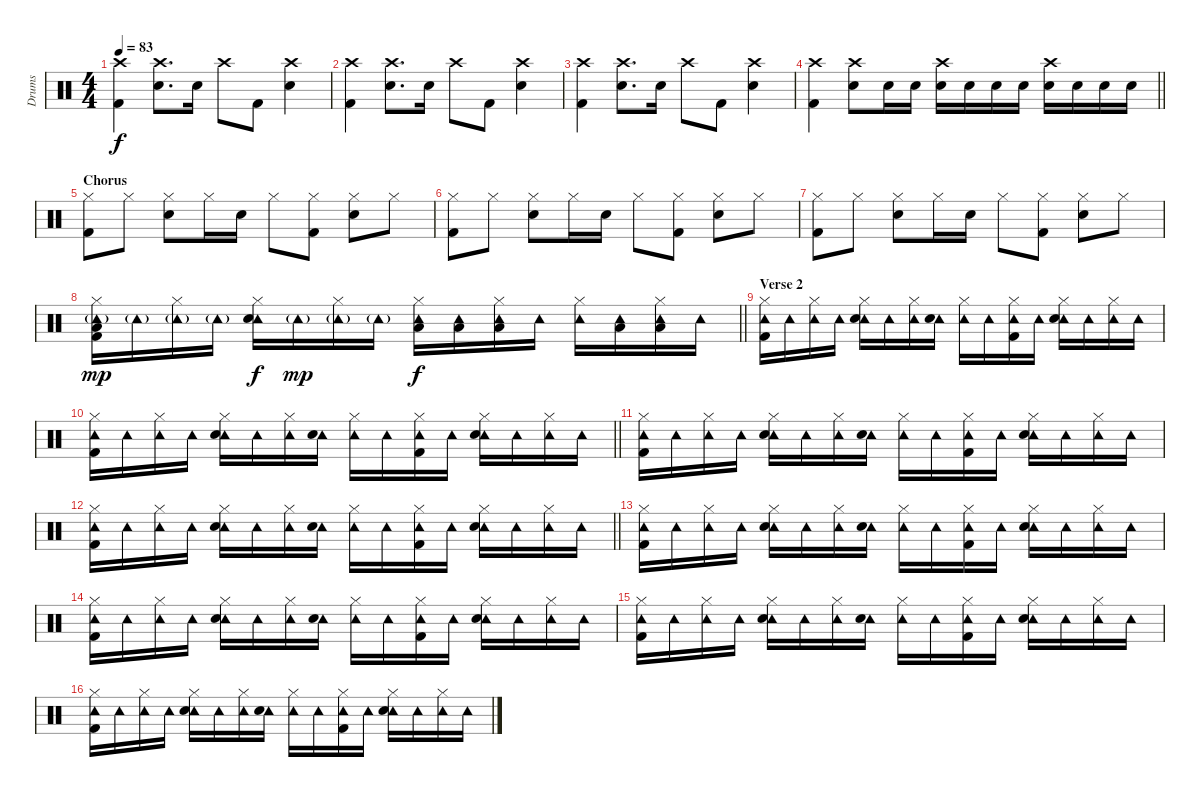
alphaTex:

\track ("Drums" "Drums") {instrument percussion}
\staff {score}
\articulation defaults
\ts (4 4)
\tempo 83
\clef neutral
\ks c
("Crash high (hit)" "Kick (hit) 2").4{dy f} ("Crash high (hit)" "Snare (hit) 2").8{d} "Snare (hit) 2".16 "Crash high (hit)".8 "Kick (hit) 2".8 ("Crash high (hit)" "Snare (hit) 2").4 |
("Crash high (hit)" "Kick (hit) 2").4 ("Crash high (hit)" "Snare (hit) 2").8{d} "Snare (hit) 2".16 "Crash high (hit)".8 "Kick (hit) 2".8 ("Crash high (hit)" "Snare (hit) 2").4 |
("Crash high (hit)" "Kick (hit) 2").4 ("Crash high (hit)" "Snare (hit) 2").8{d} "Snare (hit) 2".16 "Crash high (hit)".8 "Kick (hit) 2".8 ("Crash high (hit)" "Snare (hit) 2").4 |
\barLineRight lightlight
("Crash high (hit)" "Kick (hit) 2").4 ("Crash high (hit)" "Snare (hit) 2").8 "Snare (hit) 2".16 "Snare (hit) 2".16 ("Crash high (hit)" "Snare (hit) 2").16 "Snare (hit) 2".16 "Snare (hit) 2".16 "Snare (hit) 2".16 ("Crash high (hit)" "Snare (hit) 2").16 "Snare (hit) 2".16 "Snare (hit) 2".16 "Snare (hit) 2".16 |
\section ("" "Chorus")
("Hi-Hat (closed)" "Kick (hit) 2").8 "Hi-Hat (closed)".8 ("Hi-Hat (closed)" "Snare (hit) 2").8 "Hi-Hat (closed)".16 "Snare (hit) 2".16 "Hi-Hat (closed)".8 ("Hi-Hat (closed)" "Kick (hit) 2").8 ("Hi-Hat (closed)" "Snare (hit) 2").8 "Hi-Hat (closed)".8 |
("Hi-Hat (closed)" "Kick (hit) 2").8 "Hi-Hat (closed)".8 ("Hi-Hat (closed)" "Snare (hit) 2").8 "Hi-Hat (closed)".16 "Snare (hit) 2".16 "Hi-Hat (closed)".8 ("Hi-Hat (closed)" "Kick (hit) 2").8 ("Hi-Hat (closed)" "Snare (hit) 2").8 "Hi-Hat (closed)".8 |
("Hi-Hat (closed)" "Kick (hit) 2").8 "Hi-Hat (closed)".8 ("Hi-Hat (closed)" "Snare (hit) 2").8 "Hi-Hat (closed)".16 "Snare (hit) 2".16 "Hi-Hat (closed)".8 ("Hi-Hat (closed)" "Kick (hit) 2").8 ("Hi-Hat (closed)" "Snare (hit) 2").8 "Hi-Hat (closed)".8 |
\barLineRight lightlight
("Tambourine (hit)"{g} "Hi-Hat (closed)" "Low Tom (hit)" "Kick (hit) 2").16{dy mp} "Tambourine (hit)"{g}.16 ("Tambourine (hit)"{g} "Hi-Hat (closed)").16 "Tambourine (hit)"{g}.16 ("Tambourine (hit)" "Hi-Hat (closed)" "Snare (hit) 2").16{dy f} "Tambourine (hit)"{g}.16{dy mp} ("Tambourine (hit)"{g} "Hi-Hat (closed)").16 "Tambourine (hit)"{g}.16 ("Tambourine (hit)" "Hi-Hat (closed)" "Low Tom (hit)").16{dy f} ("Tambourine (hit)" "Low Tom (hit)").16 ("Tambourine (hit)" "Hi-Hat (closed)" "Low Tom (hit)").16 "Tambourine (hit)".16 ("Tambourine (hit)" "Hi-Hat (closed)").16 ("Tambourine (hit)" "Low Tom (hit)").16 ("Tambourine (hit)" "Hi-Hat (closed)" "Low Tom (hit)").16 "Tambourine (hit)".16 |
\section ("" "Verse 2")
("Tambourine (hit)" "Hi-Hat (closed)" "Kick (hit) 2").16 "Tambourine (hit)".16 ("Tambourine (hit)" "Hi-Hat (closed)").16 "Tambourine (hit)".16 ("Tambourine (hit)" "Hi-Hat (closed)" "Snare (hit) 2").16 "Tambourine (hit)".16 ("Tambourine (hit)" "Hi-Hat (closed)").16 ("Tambourine (hit)" "Snare (hit) 2").16 ("Tambourine (hit)" "Hi-Hat (closed)").16 "Tambourine (hit)".16 ("Tambourine (hit)" "Hi-Hat (closed)" "Kick (hit) 2").16 "Tambourine (hit)".16 ("Tambourine (hit)" "Hi-Hat (closed)" "Snare (hit) 2").16 "Tambourine (hit)".16 ("Tambourine (hit)" "Hi-Hat (closed)").16 "Tambourine (hit)".16 |
\barLineRight lightlight
("Tambourine (hit)" "Hi-Hat (closed)" "Kick (hit) 2").16 "Tambourine (hit)".16 ("Tambourine (hit)" "Hi-Hat (closed)").16 "Tambourine (hit)".16 ("Tambourine (hit)" "Hi-Hat (closed)" "Snare (hit) 2").16 "Tambourine (hit)".16 ("Tambourine (hit)" "Hi-Hat (closed)").16 ("Tambourine (hit)" "Snare (hit) 2").16 ("Tambourine (hit)" "Hi-Hat (closed)").16 "Tambourine (hit)".16 ("Tambourine (hit)" "Hi-Hat (closed)" "Kick (hit) 2").16 "Tambourine (hit)".16 ("Tambourine (hit)" "Hi-Hat (closed)" "Snare (hit) 2").16 "Tambourine (hit)".16 ("Tambourine (hit)" "Hi-Hat (closed)").16 "Tambourine (hit)".16 |
("Tambourine (hit)" "Hi-Hat (closed)" "Kick (hit) 2").16 "Tambourine (hit)".16 ("Tambourine (hit)" "Hi-Hat (closed)").16 "Tambourine (hit)".16 ("Tambourine (hit)" "Hi-Hat (closed)" "Snare (hit) 2").16 "Tambourine (hit)".16 ("Tambourine (hit)" "Hi-Hat (closed)").16 ("Tambourine (hit)" "Snare (hit) 2").16 ("Tambourine (hit)" "Hi-Hat (closed)").16 "Tambourine (hit)".16 ("Tambourine (hit)" "Hi-Hat (closed)" "Kick (hit) 2").16 "Tambourine (hit)".16 ("Tambourine (hit)" "Hi-Hat (closed)" "Snare (hit) 2").16 "Tambourine (hit)".16 ("Tambourine (hit)" "Hi-Hat (closed)").16 "Tambourine (hit)".16 |
\barLineRight lightlight
("Tambourine (hit)" "Hi-Hat (closed)" "Kick (hit) 2").16 "Tambourine (hit)".16 ("Tambourine (hit)" "Hi-Hat (closed)").16 "Tambourine (hit)".16 ("Tambourine (hit)" "Hi-Hat (closed)" "Snare (hit) 2").16 "Tambourine (hit)".16 ("Tambourine (hit)" "Hi-Hat (closed)").16 ("Tambourine (hit)" "Snare (hit) 2").16 ("Tambourine (hit)" "Hi-Hat (closed)").16 "Tambourine (hit)".16 ("Tambourine (hit)" "Hi-Hat (closed)" "Kick (hit) 2").16 "Tambourine (hit)".16 ("Tambourine (hit)" "Hi-Hat (closed)" "Snare (hit) 2").16 "Tambourine (hit)".16 ("Tambourine (hit)" "Hi-Hat (closed)").16 "Tambourine (hit)".16 |
("Tambourine (hit)" "Hi-Hat (closed)" "Kick (hit) 2").16 "Tambourine (hit)".16 ("Tambourine (hit)" "Hi-Hat (closed)").16 "Tambourine (hit)".16 ("Tambourine (hit)" "Hi-Hat (closed)" "Snare (hit) 2").16 "Tambourine (hit)".16 ("Tambourine (hit)" "Hi-Hat (closed)").16 ("Tambourine (hit)" "Snare (hit) 2").16 ("Tambourine (hit)" "Hi-Hat (closed)").16 "Tambourine (hit)".16 ("Tambourine (hit)" "Hi-Hat (closed)" "Kick (hit) 2").16 "Tambourine (hit)".16 ("Tambourine (hit)" "Hi-Hat (closed)" "Snare (hit) 2").16 "Tambourine (hit)".16 ("Tambourine (hit)" "Hi-Hat (closed)").16 "Tambourine (hit)".16 |
("Tambourine (hit)" "Hi-Hat (closed)" "Kick (hit) 2").16 "Tambourine (hit)".16 ("Tambourine (hit)" "Hi-Hat (closed)").16 "Tambourine (hit)".16 ("Tambourine (hit)" "Hi-Hat (closed)" "Snare (hit) 2").16 "Tambourine (hit)".16 ("Tambourine (hit)" "Hi-Hat (closed)").16 ("Tambourine (hit)" "Snare (hit) 2").16 ("Tambourine (hit)" "Hi-Hat (closed)").16 "Tambourine (hit)".16 ("Tambourine (hit)" "Hi-Hat (closed)" "Kick (hit) 2").16 "Tambourine (hit)".16 ("Tambourine (hit)" "Hi-Hat (closed)" "Snare (hit) 2").16 "Tambourine (hit)".16 ("Tambourine (hit)" "Hi-Hat (closed)").16 "Tambourine (hit)".16 |
("Tambourine (hit)" "Hi-Hat (closed)" "Kick (hit) 2").16 "Tambourine (hit)".16 ("Tambourine (hit)" "Hi-Hat (closed)").16 "Tambourine (hit)".16 ("Tambourine (hit)" "Hi-Hat (closed)" "Snare (hit) 2").16 "Tambourine (hit)".16 ("Tambourine (hit)" "Hi-Hat (closed)").16 ("Tambourine (hit)" "Snare (hit) 2").16 ("Tambourine (hit)" "Hi-Hat (closed)").16 "Tambourine (hit)".16 ("Tambourine (hit)" "Hi-Hat (closed)" "Kick (hit) 2").16 "Tambourine (hit)".16 ("Tambourine (hit)" "Hi-Hat (closed)" "Snare (hit) 2").16 "Tambourine (hit)".16 ("Tambourine (hit)" "Hi-Hat (closed)").16 "Tambourine (hit)".16 |
("Tambourine (hit)" "Hi-Hat (closed)" "Kick (hit) 2").16 "Tambourine (hit)".16 ("Tambourine (hit)" "Hi-Hat (closed)").16 "Tambourine (hit)".16 ("Tambourine (hit)" "Hi-Hat (closed)" "Snare (hit) 2").16 "Tambourine (hit)".16 ("Tambourine (hit)" "Hi-Hat (closed)").16 ("Tambourine (hit)" "Snare (hit) 2").16 ("Tambourine (hit)" "Hi-Hat (closed)").16 "Tambourine (hit)".16 ("Tambourine (hit)" "Hi-Hat (closed)" "Kick (hit) 2").16 "Tambourine (hit)".16 ("Tambourine (hit)" "Hi-Hat (closed)" "Snare (hit) 2").16 "Tambourine (hit)".16 ("Tambourine (hit)" "Hi-Hat (closed)").16 "Tambourine (hit)".16
